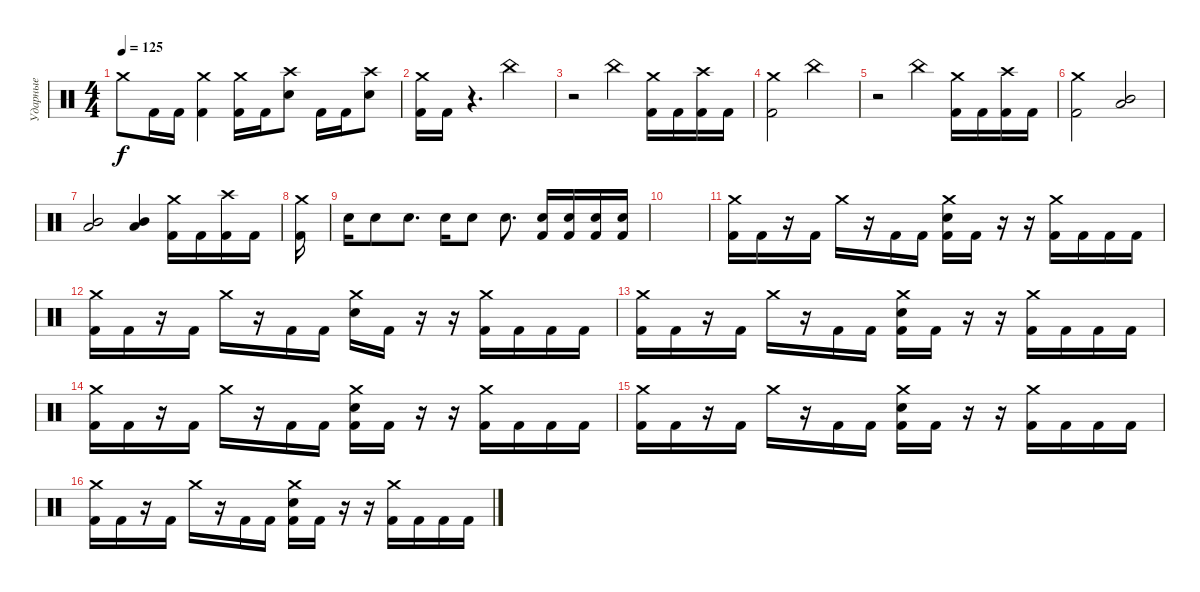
\track ("Ударные" "Ударные") {instrument percussion}
\staff {score}
\articulation defaults
\ts (4 4)
\tempo 125
\clef neutral
\ks c "Crash medium (hit)".8{dy f} "Kick (hit) 2".16 "Kick (hit) 2".16
("Crash medium (hit)" "Kick (hit) 2").4 ("Crash medium (hit)" "Kick (hit) 2").16 "Kick (hit) 2".16 ("Crash high (hit)" "Electric Snare (hit)").8 "Kick (hit) 2".16 "Kick (hit) 2".16 ("Crash high (hit)" "Electric Snare (hit)").8 |
("Crash medium (hit)" "Kick (hit) 2").16 "Kick (hit) 2".16 r.4{d} "China (hit)".2 |
r.2 "China (hit)".4 ("Crash medium (hit)" "Kick (hit) 2").16 "Kick (hit) 2".16 ("Crash high (hit)" "Kick (hit) 2").16 "Kick (hit) 2".16 |
("Crash medium (hit)" "Kick (hit) 2").2 "China (hit)".2 |
r.2 "China (hit)".4 ("Crash medium (hit)" "Kick (hit) 2").16 "Kick (hit) 2".16 ("Crash high (hit)" "Kick (hit) 2").16 "Kick (hit) 2".16 |
("Crash medium (hit)" "Kick (hit) 2").2 ("Mid Tom (hit)" "Low Tom (hit)").2 |
("Mid Tom (hit)" "Low Tom (hit)").2 ("Mid Tom (hit)" "Low Tom (hit)").4 ("Crash medium (hit)" "Kick (hit) 2").16 "Kick (hit) 2".16 ("Crash high (hit)" "Kick (hit) 2").16 "Kick (hit) 2".16 |
("Crash medium (hit)" "Kick (hit) 2").16 |
"Electric Snare (hit)".16 "Electric Snare (hit)".8 "Electric Snare (hit)".8{d} "Electric Snare (hit)".16 "Electric Snare (hit)".8 "Electric Snare (hit)".8{d} ("Electric Snare (hit)" "Kick (hit) 2").16 ("Electric Snare (hit)" "Kick (hit) 2").16 ("Electric Snare (hit)" "Kick (hit) 2").16 ("Electric Snare (hit)" "Kick (hit) 2").16 |
|
("Crash medium (hit)" "Kick (hit) 2").16 "Kick (hit) 2".16 r.16 "Kick (hit) 2".16 "Crash medium (hit)".16 r.16 "Kick (hit) 2".16 "Kick (hit) 2".16 ("Crash medium (hit)" "Electric Snare (hit)" "Kick (hit) 2").16 "Kick (hit) 2".16 r.16 r.16 ("Crash medium (hit)" "Kick (hit) 2").16 "Kick (hit) 2".16 "Kick (hit) 2".16 "Kick (hit) 2".16 |
("Crash medium (hit)" "Kick (hit) 2").16 "Kick (hit) 2".16 r.16 "Kick (hit) 2".16 "Crash medium (hit)".16 r.16 "Kick (hit) 2".16 "Kick (hit) 2".16 ("Crash medium (hit)" "Electric Snare (hit)").16 "Kick (hit) 2".16 r.16 r.16 ("Crash medium (hit)" "Kick (hit) 2").16 "Kick (hit) 2".16 "Kick (hit) 2".16 "Kick (hit) 2".16 |
("Crash medium (hit)" "Kick (hit) 2").16 "Kick (hit) 2".16 r.16 "Kick (hit) 2".16 "Crash medium (hit)".16 r.16 "Kick (hit) 2".16 "Kick (hit) 2".16 ("Crash medium (hit)" "Electric Snare (hit)" "Kick (hit) 2").16 "Kick (hit) 2".16 r.16 r.16 ("Crash medium (hit)" "Kick (hit) 2").16 "Kick (hit) 2".16 "Kick (hit) 2".16 "Kick (hit) 2".16 |
("Crash medium (hit)" "Kick (hit) 2").16 "Kick (hit) 2".16 r.16 "Kick (hit) 2".16 "Crash medium (hit)".16 r.16 "Kick (hit) 2".16 "Kick (hit) 2".16 ("Crash medium (hit)" "Electric Snare (hit)" "Kick (hit) 2").16 "Kick (hit) 2".16 r.16 r.16 ("Crash medium (hit)" "Kick (hit) 2").16 "Kick (hit) 2".16 "Kick (hit) 2".16 "Kick (hit) 2".16 |
("Crash medium (hit)" "Kick (hit) 2").16 "Kick (hit) 2".16 r.16 "Kick (hit) 2".16 "Crash medium (hit)".16 r.16 "Kick (hit) 2".16 "Kick (hit) 2".16 ("Crash medium (hit)" "Electric Snare (hit)" "Kick (hit) 2").16 "Kick (hit) 2".16 r.16 r.16 ("Crash medium (hit)" "Kick (hit) 2").16 "Kick (hit) 2".16 "Kick (hit) 2".16 "Kick (hit) 2".16 |
("Crash medium (hit)" "Kick (hit) 2").16 "Kick (hit) 2".16 r.16 "Kick (hit) 2".16 "Crash medium (hit)".16 r.16 "Kick (hit) 2".16 "Kick (hit) 2".16 ("Crash medium (hit)" "Electric Snare (hit)" "Kick (hit) 2").16 "Kick (hit) 2".16 r.16 r.16 ("Crash medium (hit)" "Kick (hit) 2").16 "Kick (hit) 2".16 "Kick (hit) 2".16 "Kick (hit) 2".16
